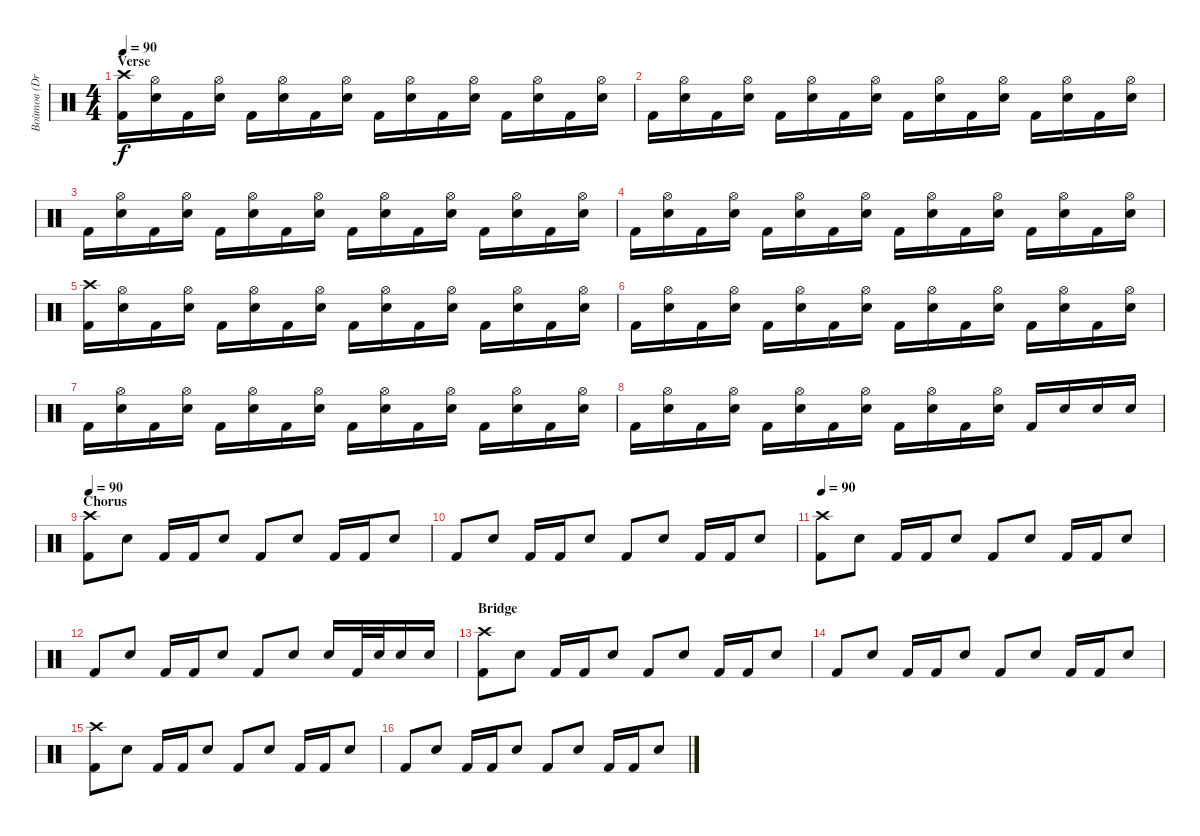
\track ("Войтов (Drums)" "Войтов (Dr") {instrument percussion}
\staff {score}
\articulation defaults
\ts (4 4)
\section ("" "Verse")
\tempo 90
\clef neutral
\ks c
("Kick (hit) 2" "Crash high (hit)").16{dy f} ("Electric Snare (hit)" "Hi-Hat (open)").16 "Kick (hit) 2".16 ("Electric Snare (hit)" "Hi-Hat (open)").16 "Kick (hit) 2".16 ("Electric Snare (hit)" "Hi-Hat (open)").16 "Kick (hit) 2".16 ("Electric Snare (hit)" "Hi-Hat (open)").16 "Kick (hit) 2".16 ("Electric Snare (hit)" "Hi-Hat (open)").16 "Kick (hit) 2".16 ("Electric Snare (hit)" "Hi-Hat (open)").16 "Kick (hit) 2".16 ("Electric Snare (hit)" "Hi-Hat (open)").16 "Kick (hit) 2".16 ("Electric Snare (hit)" "Hi-Hat (open)").16 |
"Kick (hit) 2".16 ("Electric Snare (hit)" "Hi-Hat (open)").16 "Kick (hit) 2".16 ("Electric Snare (hit)" "Hi-Hat (open)").16 "Kick (hit) 2".16 ("Electric Snare (hit)" "Hi-Hat (open)").16 "Kick (hit) 2".16 ("Electric Snare (hit)" "Hi-Hat (open)").16 "Kick (hit) 2".16 ("Electric Snare (hit)" "Hi-Hat (open)").16 "Kick (hit) 2".16 ("Electric Snare (hit)" "Hi-Hat (open)").16 "Kick (hit) 2".16 ("Electric Snare (hit)" "Hi-Hat (open)").16 "Kick (hit) 2".16 ("Electric Snare (hit)" "Hi-Hat (open)").16 |
"Kick (hit) 2".16 ("Electric Snare (hit)" "Hi-Hat (open)").16 "Kick (hit) 2".16 ("Electric Snare (hit)" "Hi-Hat (open)").16 "Kick (hit) 2".16 ("Electric Snare (hit)" "Hi-Hat (open)").16 "Kick (hit) 2".16 ("Electric Snare (hit)" "Hi-Hat (open)").16 "Kick (hit) 2".16 ("Electric Snare (hit)" "Hi-Hat (open)").16 "Kick (hit) 2".16 ("Electric Snare (hit)" "Hi-Hat (open)").16 "Kick (hit) 2".16 ("Electric Snare (hit)" "Hi-Hat (open)").16 "Kick (hit) 2".16 ("Electric Snare (hit)" "Hi-Hat (open)").16 |
"Kick (hit) 2".16 ("Electric Snare (hit)" "Hi-Hat (open)").16 "Kick (hit) 2".16 ("Electric Snare (hit)" "Hi-Hat (open)").16 "Kick (hit) 2".16 ("Electric Snare (hit)" "Hi-Hat (open)").16 "Kick (hit) 2".16 ("Electric Snare (hit)" "Hi-Hat (open)").16 "Kick (hit) 2".16 ("Electric Snare (hit)" "Hi-Hat (open)").16 "Kick (hit) 2".16 ("Electric Snare (hit)" "Hi-Hat (open)").16 "Kick (hit) 2".16 ("Electric Snare (hit)" "Hi-Hat (open)").16 "Kick (hit) 2".16 ("Electric Snare (hit)" "Hi-Hat (open)").16 |
("Kick (hit) 2" "Crash high (hit)").16 ("Electric Snare (hit)" "Hi-Hat (open)").16 "Kick (hit) 2".16 ("Electric Snare (hit)" "Hi-Hat (open)").16 "Kick (hit) 2".16 ("Electric Snare (hit)" "Hi-Hat (open)").16 "Kick (hit) 2".16 ("Electric Snare (hit)" "Hi-Hat (open)").16 "Kick (hit) 2".16 ("Electric Snare (hit)" "Hi-Hat (open)").16 "Kick (hit) 2".16 ("Electric Snare (hit)" "Hi-Hat (open)").16 "Kick (hit) 2".16 ("Electric Snare (hit)" "Hi-Hat (open)").16 "Kick (hit) 2".16 ("Electric Snare (hit)" "Hi-Hat (open)").16 |
"Kick (hit) 2".16 ("Electric Snare (hit)" "Hi-Hat (open)").16 "Kick (hit) 2".16 ("Electric Snare (hit)" "Hi-Hat (open)").16 "Kick (hit) 2".16 ("Electric Snare (hit)" "Hi-Hat (open)").16 "Kick (hit) 2".16 ("Electric Snare (hit)" "Hi-Hat (open)").16 "Kick (hit) 2".16 ("Electric Snare (hit)" "Hi-Hat (open)").16 "Kick (hit) 2".16 ("Electric Snare (hit)" "Hi-Hat (open)").16 "Kick (hit) 2".16 ("Electric Snare (hit)" "Hi-Hat (open)").16 "Kick (hit) 2".16 ("Electric Snare (hit)" "Hi-Hat (open)").16 |
"Kick (hit) 2".16 ("Electric Snare (hit)" "Hi-Hat (open)").16 "Kick (hit) 2".16 ("Electric Snare (hit)" "Hi-Hat (open)").16 "Kick (hit) 2".16 ("Electric Snare (hit)" "Hi-Hat (open)").16 "Kick (hit) 2".16 ("Electric Snare (hit)" "Hi-Hat (open)").16 "Kick (hit) 2".16 ("Electric Snare (hit)" "Hi-Hat (open)").16 "Kick (hit) 2".16 ("Electric Snare (hit)" "Hi-Hat (open)").16 "Kick (hit) 2".16 ("Electric Snare (hit)" "Hi-Hat (open)").16 "Kick (hit) 2".16 ("Electric Snare (hit)" "Hi-Hat (open)").16 |
"Kick (hit) 2".16 ("Electric Snare (hit)" "Hi-Hat (open)").16 "Kick (hit) 2".16 ("Electric Snare (hit)" "Hi-Hat (open)").16 "Kick (hit) 2".16 ("Electric Snare (hit)" "Hi-Hat (open)").16 "Kick (hit) 2".16 ("Electric Snare (hit)" "Hi-Hat (open)").16 "Kick (hit) 2".16 ("Electric Snare (hit)" "Hi-Hat (open)").16 "Kick (hit) 2".16 ("Electric Snare (hit)" "Hi-Hat (open)").16 "Kick (hit) 2".16 "Electric Snare (hit)".16 "Electric Snare (hit)".16 "Electric Snare (hit)".16 |
\section ("" "Chorus")
\tempo 90
("Kick (hit) 2" "Crash high (hit)").8 "Electric Snare (hit)".8 "Kick (hit) 2".16 "Kick (hit) 2".16 "Electric Snare (hit)".8 "Kick (hit) 2".8 "Electric Snare (hit)".8 "Kick (hit) 2".16 "Kick (hit) 2".16 "Electric Snare (hit)".8 |
"Kick (hit) 2".8 "Electric Snare (hit)".8 "Kick (hit) 2".16 "Kick (hit) 2".16 "Electric Snare (hit)".8 "Kick (hit) 2".8 "Electric Snare (hit)".8 "Kick (hit) 2".16 "Kick (hit) 2".16 "Electric Snare (hit)".8 |
\tempo 90
("Kick (hit) 2" "Crash high (hit)").8 "Electric Snare (hit)".8 "Kick (hit) 2".16 "Kick (hit) 2".16 "Electric Snare (hit)".8 "Kick (hit) 2".8 "Electric Snare (hit)".8 "Kick (hit) 2".16 "Kick (hit) 2".16 "Electric Snare (hit)".8 |
"Kick (hit) 2".8 "Electric Snare (hit)".8 "Kick (hit) 2".16 "Kick (hit) 2".16 "Electric Snare (hit)".8 "Kick (hit) 2".8 "Electric Snare (hit)".8 "Electric Snare (hit)".16 "Kick (hit) 2".32 "Electric Snare (hit)".32 "Electric Snare (hit)".16 "Electric Snare (hit)".16 |
\section ("" "Bridge")
("Kick (hit) 2" "Crash high (hit)").8 "Electric Snare (hit)".8 "Kick (hit) 2".16 "Kick (hit) 2".16 "Electric Snare (hit)".8 "Kick (hit) 2".8 "Electric Snare (hit)".8 "Kick (hit) 2".16 "Kick (hit) 2".16 "Electric Snare (hit)".8 |
"Kick (hit) 2".8 "Electric Snare (hit)".8 "Kick (hit) 2".16 "Kick (hit) 2".16 "Electric Snare (hit)".8 "Kick (hit) 2".8 "Electric Snare (hit)".8 "Kick (hit) 2".16 "Kick (hit) 2".16 "Electric Snare (hit)".8 |
("Kick (hit) 2" "Crash high (hit)").8 "Electric Snare (hit)".8 "Kick (hit) 2".16 "Kick (hit) 2".16 "Electric Snare (hit)".8 "Kick (hit) 2".8 "Electric Snare (hit)".8 "Kick (hit) 2".16 "Kick (hit) 2".16 "Electric Snare (hit)".8 |
"Kick (hit) 2".8 "Electric Snare (hit)".8 "Kick (hit) 2".16 "Kick (hit) 2".16 "Electric Snare (hit)".8 "Kick (hit) 2".8 "Electric Snare (hit)".8 "Kick (hit) 2".16 "Kick (hit) 2".16 "Electric Snare (hit)".8
